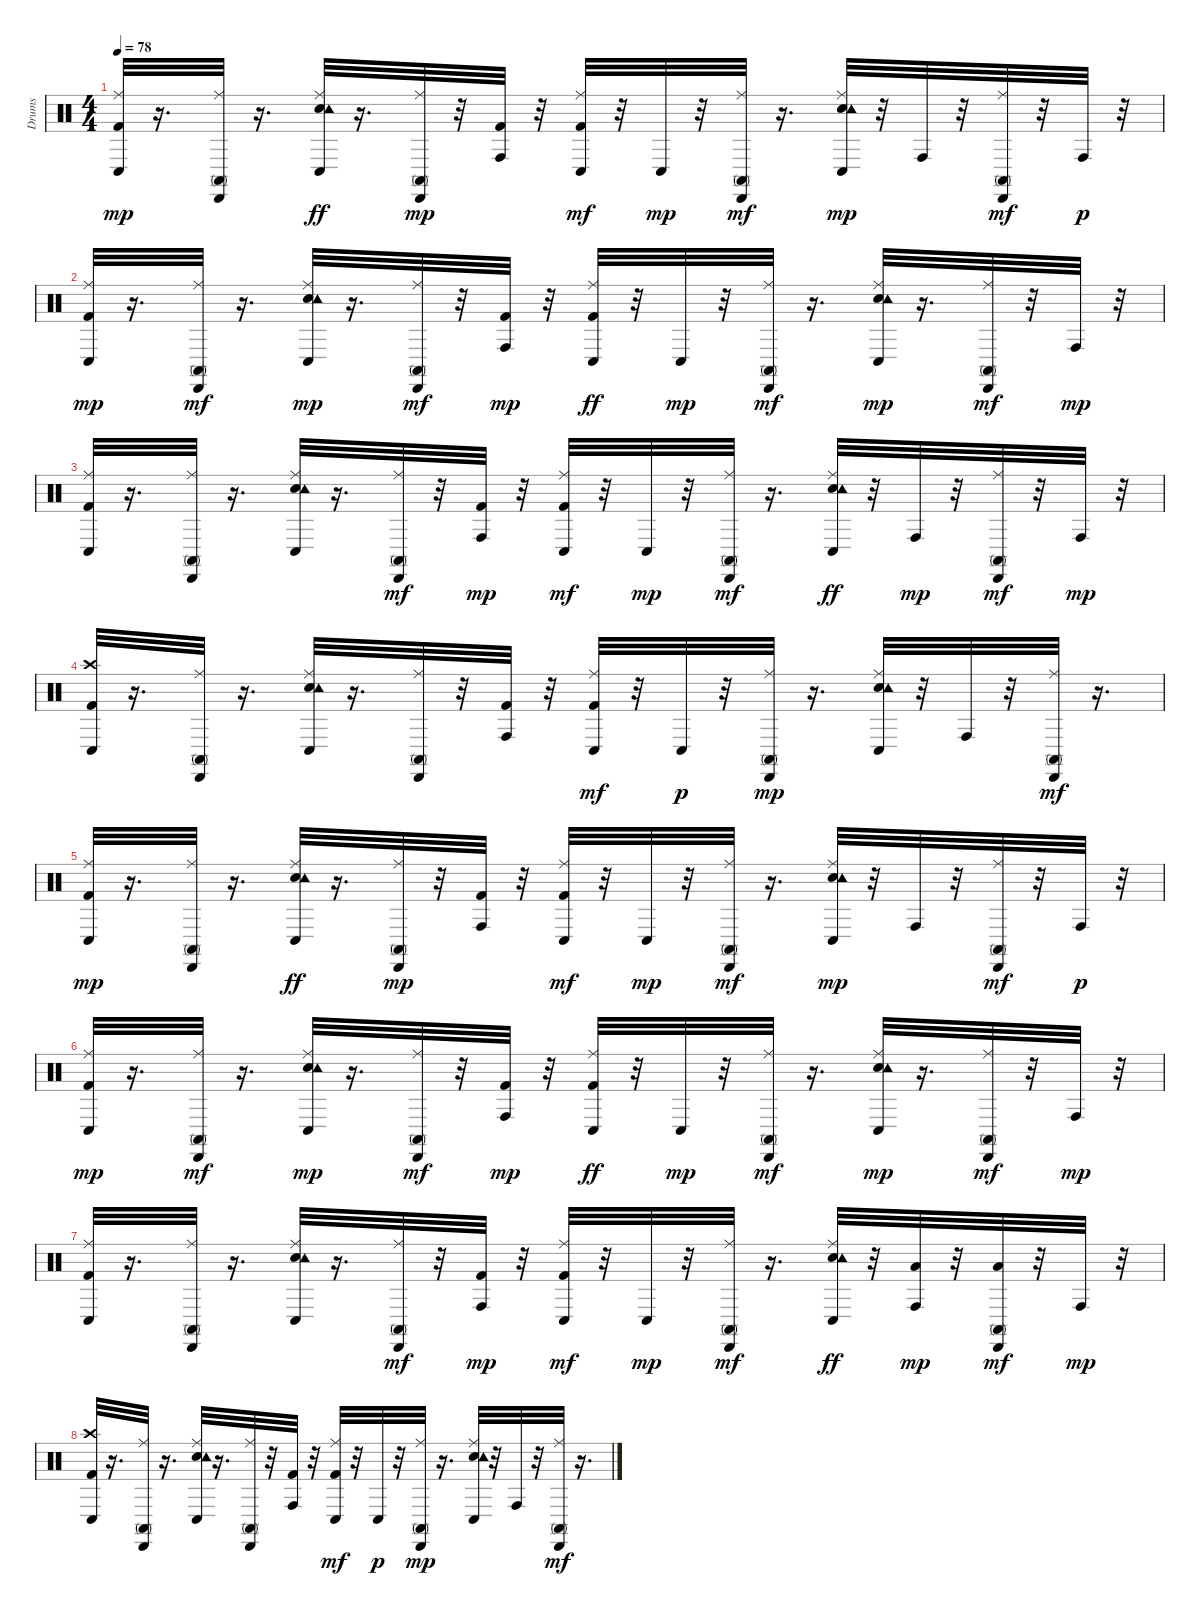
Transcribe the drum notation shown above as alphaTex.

\track ("Drums   " "Drums   ") {instrument percussion}
\staff {score}
\articulation defaults
\ts (4 4)
\tempo 78
\clef neutral
\ks c
("Kick (hit) 2" "Ride (middle)" "Conga low (hit)").32{dy mp} r.16{d} ("Ride (middle)" "Conga high (mute)" "Cabasa (hit)").32 r.16{d} ("Ride (middle)" "Conga low (hit)" "Snare (hit) 2" "Tambourine (hit)").32{dy ff} r.16{d} ("Conga high (mute)" "Ride (middle)" "Cabasa (hit)").32{dy mp} r.32 ("Kick (hit) 2" "Conga high (hit)").32 r.32 ("Kick (hit) 2" "Conga low (hit)" "Ride (middle)").32{dy mf} r.32 "Conga low (hit)".32{dy mp} r.32 ("Conga high (mute)" "Ride (middle)" "Cabasa (hit)").32{dy mf} r.16{d} ("Snare (hit) 2" "Tambourine (hit)" "Ride (middle)" "Conga low (hit)").32{dy mp} r.32 "Conga high (hit)".32 r.32 ("Cabasa (hit)" "Ride (middle)" "Conga high (mute)").32{dy mf} r.32 "Conga high (hit)".32{dy p} r.32 |
("Ride (middle)" "Kick (hit) 2" "Conga low (hit)").32{dy mp} r.16{d} ("Cabasa (hit)" "Ride (middle)" "Conga high (mute)").32{dy mf} r.16{d} ("Snare (hit) 2" "Tambourine (hit)" "Ride (middle)" "Conga low (hit)").32{dy mp} r.16{d} ("Cabasa (hit)" "Ride (middle)" "Conga high (mute)").32{dy mf} r.32 ("Kick (hit) 2" "Conga high (hit)").32{dy mp} r.32 ("Conga low (hit)" "Ride (middle)" "Kick (hit) 2").32{dy ff} r.32 "Conga low (hit)".32{dy mp} r.32 ("Ride (middle)" "Cabasa (hit)" "Conga high (mute)").32{dy mf} r.16{d} ("Snare (hit) 2" "Tambourine (hit)" "Ride (middle)" "Conga low (hit)").32{dy mp} r.16{d} ("Conga high (mute)" "Ride (middle)" "Cabasa (hit)").32{dy mf} r.32 "Conga high (hit)".32{dy mp} r.32 |
("Ride (middle)" "Kick (hit) 2" "Conga low (hit)").32 r.16{d} ("Ride (middle)" "Conga high (mute)" "Cabasa (hit)").32 r.16{d} ("Snare (hit) 2" "Tambourine (hit)" "Ride (middle)" "Conga low (hit)").32 r.16{d} ("Ride (middle)" "Conga high (mute)" "Cabasa (hit)").32{dy mf} r.32 ("Kick (hit) 2" "Conga high (hit)").32{dy mp} r.32 ("Conga low (hit)" "Kick (hit) 2" "Ride (middle)").32{dy mf} r.32 "Conga low (hit)".32{dy mp} r.32 ("Cabasa (hit)" "Conga high (mute)" "Ride (middle)").32{dy mf} r.16{d} ("Ride (middle)" "Conga low (hit)" "Snare (hit) 2" "Tambourine (hit)").32{dy ff} r.32 "Conga high (hit)".32{dy mp} r.32 ("Conga high (mute)" "Cabasa (hit)" "Ride (middle)").32{dy mf} r.32 "Conga high (hit)".32{dy mp} r.32 |
("Kick (hit) 2" "Crash high (hit)" "Conga low (hit)").32 r.16{d} ("Ride (middle)" "Conga high (mute)" "Cabasa (hit)").32 r.16{d} ("Snare (hit) 2" "Ride (middle)" "Tambourine (hit)" "Conga low (hit)").32 r.16{d} ("Ride (middle)" "Conga high (mute)" "Cabasa (hit)").32 r.32 ("Kick (hit) 2" "Conga high (hit)").32 r.32 ("Conga low (hit)" "Kick (hit) 2" "Ride (middle)").32{dy mf} r.32 "Conga low (hit)".32{dy p} r.32 ("Ride (middle)" "Conga high (mute)" "Cabasa (hit)").32{dy mp} r.16{d} ("Snare (hit) 2" "Tambourine (hit)" "Ride (middle)" "Conga low (hit)").32 r.32 "Conga high (hit)".32 r.32 ("Conga high (mute)" "Ride (middle)" "Cabasa (hit)").32{dy mf} r.16{d} |
("Kick (hit) 2" "Ride (middle)" "Conga low (hit)").32{dy mp} r.16{d} ("Ride (middle)" "Conga high (mute)" "Cabasa (hit)").32 r.16{d} ("Ride (middle)" "Conga low (hit)" "Snare (hit) 2" "Tambourine (hit)").32{dy ff} r.16{d} ("Conga high (mute)" "Ride (middle)" "Cabasa (hit)").32{dy mp} r.32 ("Kick (hit) 2" "Conga high (hit)").32 r.32 ("Kick (hit) 2" "Conga low (hit)" "Ride (middle)").32{dy mf} r.32 "Conga low (hit)".32{dy mp} r.32 ("Conga high (mute)" "Ride (middle)" "Cabasa (hit)").32{dy mf} r.16{d} ("Snare (hit) 2" "Tambourine (hit)" "Ride (middle)" "Conga low (hit)").32{dy mp} r.32 "Conga high (hit)".32 r.32 ("Cabasa (hit)" "Ride (middle)" "Conga high (mute)").32{dy mf} r.32 "Conga high (hit)".32{dy p} r.32 |
("Ride (middle)" "Kick (hit) 2" "Conga low (hit)").32{dy mp} r.16{d} ("Cabasa (hit)" "Ride (middle)" "Conga high (mute)").32{dy mf} r.16{d} ("Snare (hit) 2" "Tambourine (hit)" "Ride (middle)" "Conga low (hit)").32{dy mp} r.16{d} ("Cabasa (hit)" "Ride (middle)" "Conga high (mute)").32{dy mf} r.32 ("Kick (hit) 2" "Conga high (hit)").32{dy mp} r.32 ("Conga low (hit)" "Ride (middle)" "Kick (hit) 2").32{dy ff} r.32 "Conga low (hit)".32{dy mp} r.32 ("Ride (middle)" "Cabasa (hit)" "Conga high (mute)").32{dy mf} r.16{d} ("Snare (hit) 2" "Tambourine (hit)" "Ride (middle)" "Conga low (hit)").32{dy mp} r.16{d} ("Conga high (mute)" "Ride (middle)" "Cabasa (hit)").32{dy mf} r.32 "Conga high (hit)".32{dy mp} r.32 |
("Ride (middle)" "Kick (hit) 2" "Conga low (hit)").32 r.16{d} ("Ride (middle)" "Conga high (mute)" "Cabasa (hit)").32 r.16{d} ("Snare (hit) 2" "Tambourine (hit)" "Ride (middle)" "Conga low (hit)").32 r.16{d} ("Ride (middle)" "Conga high (mute)" "Cabasa (hit)").32{dy mf} r.32 ("Kick (hit) 2" "Conga high (hit)").32{dy mp} r.32 ("Conga low (hit)" "Kick (hit) 2" "Ride (middle)").32{dy mf} r.32 "Conga low (hit)".32{dy mp} r.32 ("Cabasa (hit)" "Conga high (mute)" "Ride (middle)").32{dy mf} r.16{d} ("Ride (middle)" "Conga low (hit)" "Snare (hit) 2" "Tambourine (hit)").32{dy ff} r.32 ("Low Tom (hit)" "Conga high (hit)").32{dy mp} r.32 ("Conga high (mute)" "Cabasa (hit)" "Low Floor Tom (hit)").32{dy mf} r.32 "Conga high (hit)".32{dy mp} r.32 |
("Kick (hit) 2" "Crash high (hit)" "Conga low (hit)").32 r.16{d} ("Ride (middle)" "Conga high (mute)" "Cabasa (hit)").32 r.16{d} ("Snare (hit) 2" "Ride (middle)" "Tambourine (hit)" "Conga low (hit)").32 r.16{d} ("Ride (middle)" "Conga high (mute)" "Cabasa (hit)").32 r.32 ("Kick (hit) 2" "Conga high (hit)").32 r.32 ("Conga low (hit)" "Kick (hit) 2" "Ride (middle)").32{dy mf} r.32 "Conga low (hit)".32{dy p} r.32 ("Ride (middle)" "Conga high (mute)" "Cabasa (hit)").32{dy mp} r.16{d} ("Snare (hit) 2" "Tambourine (hit)" "Ride (middle)" "Conga low (hit)").32 r.32 "Conga high (hit)".32 r.32 ("Conga high (mute)" "Ride (middle)" "Cabasa (hit)").32{dy mf} r.16{d}
